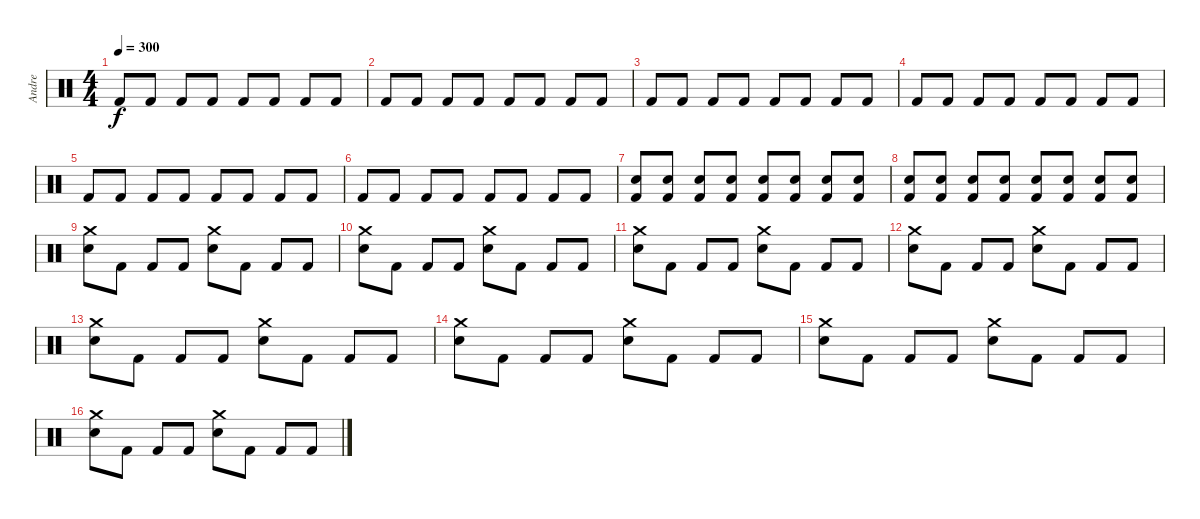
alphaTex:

\track ("Andre" "Andre") {instrument percussion}
\staff {score}
\articulation defaults
\ts (4 4)
\tempo 300
\clef neutral
\ks c "Kick (hit) 2".8{dy f} "Kick (hit) 2".8 "Kick (hit) 2".8 "Kick (hit) 2".8 "Kick (hit) 2".8 "Kick (hit) 2".8 "Kick (hit) 2".8 "Kick (hit) 2".8
|
"Kick (hit) 2".8 "Kick (hit) 2".8 "Kick (hit) 2".8 "Kick (hit) 2".8 "Kick (hit) 2".8 "Kick (hit) 2".8 "Kick (hit) 2".8 "Kick (hit) 2".8 |
"Kick (hit) 2".8 "Kick (hit) 2".8 "Kick (hit) 2".8 "Kick (hit) 2".8 "Kick (hit) 2".8 "Kick (hit) 2".8 "Kick (hit) 2".8 "Kick (hit) 2".8 |
"Kick (hit) 2".8 "Kick (hit) 2".8 "Kick (hit) 2".8 "Kick (hit) 2".8 "Kick (hit) 2".8 "Kick (hit) 2".8 "Kick (hit) 2".8 "Kick (hit) 2".8 |
"Kick (hit) 2".8 "Kick (hit) 2".8 "Kick (hit) 2".8 "Kick (hit) 2".8 "Kick (hit) 2".8 "Kick (hit) 2".8 "Kick (hit) 2".8 "Kick (hit) 2".8 |
"Kick (hit) 2".8 "Kick (hit) 2".8 "Kick (hit) 2".8 "Kick (hit) 2".8 "Kick (hit) 2".8 "Kick (hit) 2".8 "Kick (hit) 2".8 "Kick (hit) 2".8 |
("Electric Snare (hit)" "Kick (hit) 2").8 ("Electric Snare (hit)" "Kick (hit) 2").8 ("Electric Snare (hit)" "Kick (hit) 2").8 ("Electric Snare (hit)" "Kick (hit) 2").8 ("Electric Snare (hit)" "Kick (hit) 2").8 ("Electric Snare (hit)" "Kick (hit) 2").8 ("Electric Snare (hit)" "Kick (hit) 2").8 ("Electric Snare (hit)" "Kick (hit) 2").8 |
("Electric Snare (hit)" "Kick (hit) 2").8 ("Electric Snare (hit)" "Kick (hit) 2").8 ("Electric Snare (hit)" "Kick (hit) 2").8 ("Electric Snare (hit)" "Kick (hit) 2").8 ("Electric Snare (hit)" "Kick (hit) 2").8 ("Electric Snare (hit)" "Kick (hit) 2").8 ("Electric Snare (hit)" "Kick (hit) 2").8 ("Electric Snare (hit)" "Kick (hit) 2").8 |
("Crash medium (hit)" "Electric Snare (hit)").8 "Kick (hit) 2".8 "Kick (hit) 2".8 "Kick (hit) 2".8 ("Crash medium (hit)" "Electric Snare (hit)").8 "Kick (hit) 2".8 "Kick (hit) 2".8 "Kick (hit) 2".8 |
("Crash medium (hit)" "Electric Snare (hit)").8 "Kick (hit) 2".8 "Kick (hit) 2".8 "Kick (hit) 2".8 ("Crash medium (hit)" "Electric Snare (hit)").8 "Kick (hit) 2".8 "Kick (hit) 2".8 "Kick (hit) 2".8 |
("Crash medium (hit)" "Electric Snare (hit)").8 "Kick (hit) 2".8 "Kick (hit) 2".8 "Kick (hit) 2".8 ("Crash medium (hit)" "Electric Snare (hit)").8 "Kick (hit) 2".8 "Kick (hit) 2".8 "Kick (hit) 2".8 |
("Crash medium (hit)" "Electric Snare (hit)").8 "Kick (hit) 2".8 "Kick (hit) 2".8 "Kick (hit) 2".8 ("Crash medium (hit)" "Electric Snare (hit)").8 "Kick (hit) 2".8 "Kick (hit) 2".8 "Kick (hit) 2".8 |
("Crash medium (hit)" "Electric Snare (hit)").8 "Kick (hit) 2".8 "Kick (hit) 2".8 "Kick (hit) 2".8 ("Crash medium (hit)" "Electric Snare (hit)").8 "Kick (hit) 2".8 "Kick (hit) 2".8 "Kick (hit) 2".8 |
("Crash medium (hit)" "Electric Snare (hit)").8 "Kick (hit) 2".8 "Kick (hit) 2".8 "Kick (hit) 2".8 ("Crash medium (hit)" "Electric Snare (hit)").8 "Kick (hit) 2".8 "Kick (hit) 2".8 "Kick (hit) 2".8 |
("Crash medium (hit)" "Electric Snare (hit)").8 "Kick (hit) 2".8 "Kick (hit) 2".8 "Kick (hit) 2".8 ("Crash medium (hit)" "Electric Snare (hit)").8 "Kick (hit) 2".8 "Kick (hit) 2".8 "Kick (hit) 2".8 |
("Crash medium (hit)" "Electric Snare (hit)").8 "Kick (hit) 2".8 "Kick (hit) 2".8 "Kick (hit) 2".8 ("Crash medium (hit)" "Electric Snare (hit)").8 "Kick (hit) 2".8 "Kick (hit) 2".8 "Kick (hit) 2".8
